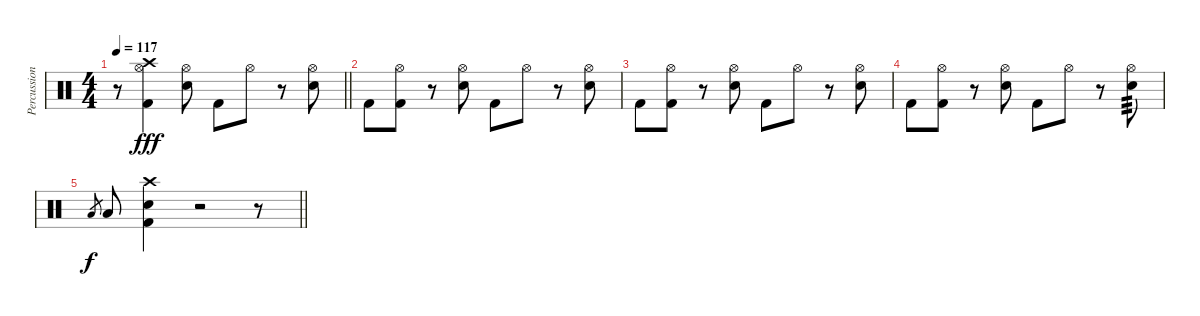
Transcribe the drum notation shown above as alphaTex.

\track ("Percussion 1" "Percussion") {instrument percussion}
\staff {score}
\articulation defaults
\ts (4 4)
\tempo 117
\clef neutral
\barLineRight lightlight
\ks c
r.8{dy f} ("Hi-Hat (open)" "Crash high (hit)" "Kick (hit) 2").4{dy fff} ("Hi-Hat (open)" "Electric Snare (hit)").8 "Kick (hit) 2".8 "Hi-Hat (open)".8 r.8 ("Hi-Hat (open)" "Electric Snare (hit)").8 |
"Kick (hit) 2".8 ("Hi-Hat (open)" "Kick (hit) 2").8 r.8 ("Hi-Hat (open)" "Electric Snare (hit)").8 "Kick (hit) 2".8 "Hi-Hat (open)".8 r.8 ("Hi-Hat (open)" "Electric Snare (hit)").8 |
"Kick (hit) 2".8 ("Hi-Hat (open)" "Kick (hit) 2").8 r.8 ("Hi-Hat (open)" "Electric Snare (hit)").8 "Kick (hit) 2".8 "Hi-Hat (open)".8 r.8 ("Hi-Hat (open)" "Electric Snare (hit)").8 |
"Kick (hit) 2".8 ("Hi-Hat (open)" "Kick (hit) 2").8 r.8 ("Hi-Hat (open)" "Electric Snare (hit)").8 "Kick (hit) 2".8 "Hi-Hat (open)".8 r.8 ("Hi-Hat (open)" "Electric Snare (hit)").8{tp 3} |
\barLineRight lightlight "Low Tom (hit)".8{gr dy f} "Low Tom (hit)".8
("Crash high (hit)" "Electric Snare (hit)" "Kick (hit) 2").4 r.2 r.8
